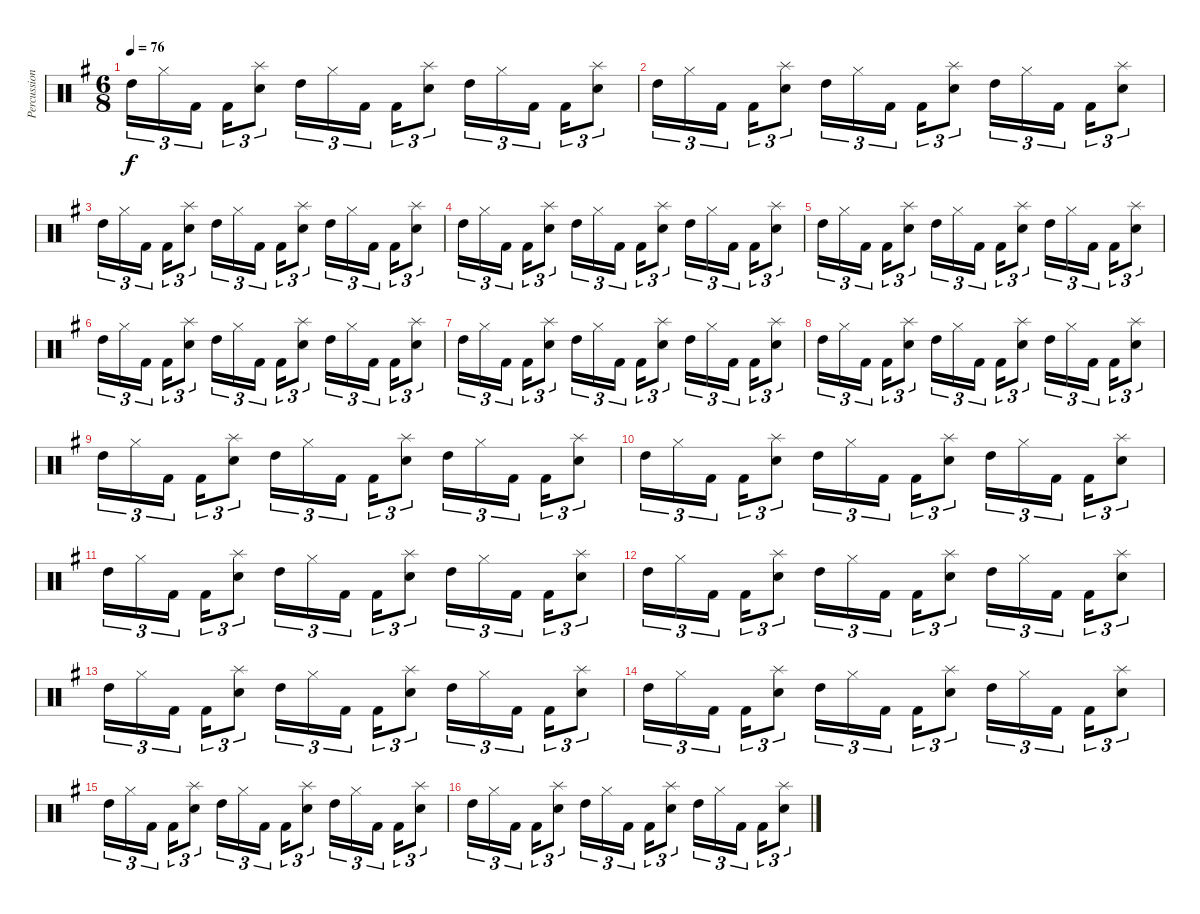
\track ("Percussions 3" "Percussion") {instrument percussion}
\staff {score}
\articulation defaults
\ts (6 8)
\tempo 76
\clef neutral
\ks g "High Tom (hit)".16{tu (3 2) dy f} "Hi-Hat (closed)".16{tu (3 2)} "Kick (hit) 2".16{tu (3 2)} "Kick (hit) 2".16{tu (3 2)}
("Splash (hit)" "Snare (hit) 2").8{tu (3 2)} "High Tom (hit)".16{tu (3 2)} "Hi-Hat (closed)".16{tu (3 2)} "Kick (hit) 2".16{tu (3 2)} "Kick (hit) 2".16{tu (3 2)} ("Splash (hit)" "Snare (hit) 2").8{tu (3 2)} "High Tom (hit)".16{tu (3 2)} "Hi-Hat (closed)".16{tu (3 2)} "Kick (hit) 2".16{tu (3 2)} "Kick (hit) 2".16{tu (3 2)} ("Splash (hit)" "Snare (hit) 2").8{tu (3 2)} |
"High Tom (hit)".16{tu (3 2)} "Hi-Hat (closed)".16{tu (3 2)} "Kick (hit) 2".16{tu (3 2)} "Kick (hit) 2".16{tu (3 2)} ("Splash (hit)" "Snare (hit) 2").8{tu (3 2)} "High Tom (hit)".16{tu (3 2)} "Hi-Hat (closed)".16{tu (3 2)} "Kick (hit) 2".16{tu (3 2)} "Kick (hit) 2".16{tu (3 2)} ("Splash (hit)" "Snare (hit) 2").8{tu (3 2)} "High Tom (hit)".16{tu (3 2)} "Hi-Hat (closed)".16{tu (3 2)} "Kick (hit) 2".16{tu (3 2)} "Kick (hit) 2".16{tu (3 2)} ("Splash (hit)" "Snare (hit) 2").8{tu (3 2)} |
"High Tom (hit)".16{tu (3 2)} "Hi-Hat (closed)".16{tu (3 2)} "Kick (hit) 2".16{tu (3 2)} "Kick (hit) 2".16{tu (3 2)} ("Splash (hit)" "Snare (hit) 2").8{tu (3 2)} "High Tom (hit)".16{tu (3 2)} "Hi-Hat (closed)".16{tu (3 2)} "Kick (hit) 2".16{tu (3 2)} "Kick (hit) 2".16{tu (3 2)} ("Splash (hit)" "Snare (hit) 2").8{tu (3 2)} "High Tom (hit)".16{tu (3 2)} "Hi-Hat (closed)".16{tu (3 2)} "Kick (hit) 2".16{tu (3 2)} "Kick (hit) 2".16{tu (3 2)} ("Splash (hit)" "Snare (hit) 2").8{tu (3 2)} |
"High Tom (hit)".16{tu (3 2)} "Hi-Hat (closed)".16{tu (3 2)} "Kick (hit) 2".16{tu (3 2)} "Kick (hit) 2".16{tu (3 2)} ("Splash (hit)" "Snare (hit) 2").8{tu (3 2)} "High Tom (hit)".16{tu (3 2)} "Hi-Hat (closed)".16{tu (3 2)} "Kick (hit) 2".16{tu (3 2)} "Kick (hit) 2".16{tu (3 2)} ("Splash (hit)" "Snare (hit) 2").8{tu (3 2)} "High Tom (hit)".16{tu (3 2)} "Hi-Hat (closed)".16{tu (3 2)} "Kick (hit) 2".16{tu (3 2)} "Kick (hit) 2".16{tu (3 2)} ("Splash (hit)" "Snare (hit) 2").8{tu (3 2)} |
"High Tom (hit)".16{tu (3 2)} "Hi-Hat (closed)".16{tu (3 2)} "Kick (hit) 2".16{tu (3 2)} "Kick (hit) 2".16{tu (3 2)} ("Splash (hit)" "Snare (hit) 2").8{tu (3 2)} "High Tom (hit)".16{tu (3 2)} "Hi-Hat (closed)".16{tu (3 2)} "Kick (hit) 2".16{tu (3 2)} "Kick (hit) 2".16{tu (3 2)} ("Splash (hit)" "Snare (hit) 2").8{tu (3 2)} "High Tom (hit)".16{tu (3 2)} "Hi-Hat (closed)".16{tu (3 2)} "Kick (hit) 2".16{tu (3 2)} "Kick (hit) 2".16{tu (3 2)} ("Splash (hit)" "Snare (hit) 2").8{tu (3 2)} |
"High Tom (hit)".16{tu (3 2)} "Hi-Hat (closed)".16{tu (3 2)} "Kick (hit) 2".16{tu (3 2)} "Kick (hit) 2".16{tu (3 2)} ("Splash (hit)" "Snare (hit) 2").8{tu (3 2)} "High Tom (hit)".16{tu (3 2)} "Hi-Hat (closed)".16{tu (3 2)} "Kick (hit) 2".16{tu (3 2)} "Kick (hit) 2".16{tu (3 2)} ("Splash (hit)" "Snare (hit) 2").8{tu (3 2)} "High Tom (hit)".16{tu (3 2)} "Hi-Hat (closed)".16{tu (3 2)} "Kick (hit) 2".16{tu (3 2)} "Kick (hit) 2".16{tu (3 2)} ("Splash (hit)" "Snare (hit) 2").8{tu (3 2)} |
"High Tom (hit)".16{tu (3 2)} "Hi-Hat (closed)".16{tu (3 2)} "Kick (hit) 2".16{tu (3 2)} "Kick (hit) 2".16{tu (3 2)} ("Splash (hit)" "Snare (hit) 2").8{tu (3 2)} "High Tom (hit)".16{tu (3 2)} "Hi-Hat (closed)".16{tu (3 2)} "Kick (hit) 2".16{tu (3 2)} "Kick (hit) 2".16{tu (3 2)} ("Splash (hit)" "Snare (hit) 2").8{tu (3 2)} "High Tom (hit)".16{tu (3 2)} "Hi-Hat (closed)".16{tu (3 2)} "Kick (hit) 2".16{tu (3 2)} "Kick (hit) 2".16{tu (3 2)} ("Splash (hit)" "Snare (hit) 2").8{tu (3 2)} |
"High Tom (hit)".16{tu (3 2)} "Hi-Hat (closed)".16{tu (3 2)} "Kick (hit) 2".16{tu (3 2)} "Kick (hit) 2".16{tu (3 2)} ("Splash (hit)" "Snare (hit) 2").8{tu (3 2)} "High Tom (hit)".16{tu (3 2)} "Hi-Hat (closed)".16{tu (3 2)} "Kick (hit) 2".16{tu (3 2)} "Kick (hit) 2".16{tu (3 2)} ("Splash (hit)" "Snare (hit) 2").8{tu (3 2)} "High Tom (hit)".16{tu (3 2)} "Hi-Hat (closed)".16{tu (3 2)} "Kick (hit) 2".16{tu (3 2)} "Kick (hit) 2".16{tu (3 2)} ("Splash (hit)" "Snare (hit) 2").8{tu (3 2)} |
"High Tom (hit)".16{tu (3 2)} "Hi-Hat (closed)".16{tu (3 2)} "Kick (hit) 2".16{tu (3 2)} "Kick (hit) 2".16{tu (3 2)} ("Splash (hit)" "Snare (hit) 2").8{tu (3 2)} "High Tom (hit)".16{tu (3 2)} "Hi-Hat (closed)".16{tu (3 2)} "Kick (hit) 2".16{tu (3 2)} "Kick (hit) 2".16{tu (3 2)} ("Splash (hit)" "Snare (hit) 2").8{tu (3 2)} "High Tom (hit)".16{tu (3 2)} "Hi-Hat (closed)".16{tu (3 2)} "Kick (hit) 2".16{tu (3 2)} "Kick (hit) 2".16{tu (3 2)} ("Splash (hit)" "Snare (hit) 2").8{tu (3 2)} |
"High Tom (hit)".16{tu (3 2)} "Hi-Hat (closed)".16{tu (3 2)} "Kick (hit) 2".16{tu (3 2)} "Kick (hit) 2".16{tu (3 2)} ("Splash (hit)" "Snare (hit) 2").8{tu (3 2)} "High Tom (hit)".16{tu (3 2)} "Hi-Hat (closed)".16{tu (3 2)} "Kick (hit) 2".16{tu (3 2)} "Kick (hit) 2".16{tu (3 2)} ("Splash (hit)" "Snare (hit) 2").8{tu (3 2)} "High Tom (hit)".16{tu (3 2)} "Hi-Hat (closed)".16{tu (3 2)} "Kick (hit) 2".16{tu (3 2)} "Kick (hit) 2".16{tu (3 2)} ("Splash (hit)" "Snare (hit) 2").8{tu (3 2)} |
"High Tom (hit)".16{tu (3 2)} "Hi-Hat (closed)".16{tu (3 2)} "Kick (hit) 2".16{tu (3 2)} "Kick (hit) 2".16{tu (3 2)} ("Splash (hit)" "Snare (hit) 2").8{tu (3 2)} "High Tom (hit)".16{tu (3 2)} "Hi-Hat (closed)".16{tu (3 2)} "Kick (hit) 2".16{tu (3 2)} "Kick (hit) 2".16{tu (3 2)} ("Splash (hit)" "Snare (hit) 2").8{tu (3 2)} "High Tom (hit)".16{tu (3 2)} "Hi-Hat (closed)".16{tu (3 2)} "Kick (hit) 2".16{tu (3 2)} "Kick (hit) 2".16{tu (3 2)} ("Splash (hit)" "Snare (hit) 2").8{tu (3 2)} |
"High Tom (hit)".16{tu (3 2)} "Hi-Hat (closed)".16{tu (3 2)} "Kick (hit) 2".16{tu (3 2)} "Kick (hit) 2".16{tu (3 2)} ("Splash (hit)" "Snare (hit) 2").8{tu (3 2)} "High Tom (hit)".16{tu (3 2)} "Hi-Hat (closed)".16{tu (3 2)} "Kick (hit) 2".16{tu (3 2)} "Kick (hit) 2".16{tu (3 2)} ("Splash (hit)" "Snare (hit) 2").8{tu (3 2)} "High Tom (hit)".16{tu (3 2)} "Hi-Hat (closed)".16{tu (3 2)} "Kick (hit) 2".16{tu (3 2)} "Kick (hit) 2".16{tu (3 2)} ("Splash (hit)" "Snare (hit) 2").8{tu (3 2)} |
"High Tom (hit)".16{tu (3 2)} "Hi-Hat (closed)".16{tu (3 2)} "Kick (hit) 2".16{tu (3 2)} "Kick (hit) 2".16{tu (3 2)} ("Splash (hit)" "Snare (hit) 2").8{tu (3 2)} "High Tom (hit)".16{tu (3 2)} "Hi-Hat (closed)".16{tu (3 2)} "Kick (hit) 2".16{tu (3 2)} "Kick (hit) 2".16{tu (3 2)} ("Splash (hit)" "Snare (hit) 2").8{tu (3 2)} "High Tom (hit)".16{tu (3 2)} "Hi-Hat (closed)".16{tu (3 2)} "Kick (hit) 2".16{tu (3 2)} "Kick (hit) 2".16{tu (3 2)} ("Splash (hit)" "Snare (hit) 2").8{tu (3 2)} |
"High Tom (hit)".16{tu (3 2)} "Hi-Hat (closed)".16{tu (3 2)} "Kick (hit) 2".16{tu (3 2)} "Kick (hit) 2".16{tu (3 2)} ("Splash (hit)" "Snare (hit) 2").8{tu (3 2)} "High Tom (hit)".16{tu (3 2)} "Hi-Hat (closed)".16{tu (3 2)} "Kick (hit) 2".16{tu (3 2)} "Kick (hit) 2".16{tu (3 2)} ("Splash (hit)" "Snare (hit) 2").8{tu (3 2)} "High Tom (hit)".16{tu (3 2)} "Hi-Hat (closed)".16{tu (3 2)} "Kick (hit) 2".16{tu (3 2)} "Kick (hit) 2".16{tu (3 2)} ("Splash (hit)" "Snare (hit) 2").8{tu (3 2)} |
"High Tom (hit)".16{tu (3 2)} "Hi-Hat (closed)".16{tu (3 2)} "Kick (hit) 2".16{tu (3 2)} "Kick (hit) 2".16{tu (3 2)} ("Splash (hit)" "Snare (hit) 2").8{tu (3 2)} "High Tom (hit)".16{tu (3 2)} "Hi-Hat (closed)".16{tu (3 2)} "Kick (hit) 2".16{tu (3 2)} "Kick (hit) 2".16{tu (3 2)} ("Splash (hit)" "Snare (hit) 2").8{tu (3 2)} "High Tom (hit)".16{tu (3 2)} "Hi-Hat (closed)".16{tu (3 2)} "Kick (hit) 2".16{tu (3 2)} "Kick (hit) 2".16{tu (3 2)} ("Splash (hit)" "Snare (hit) 2").8{tu (3 2)} |
"High Tom (hit)".16{tu (3 2)} "Hi-Hat (closed)".16{tu (3 2)} "Kick (hit) 2".16{tu (3 2)} "Kick (hit) 2".16{tu (3 2)} ("Splash (hit)" "Snare (hit) 2").8{tu (3 2)} "High Tom (hit)".16{tu (3 2)} "Hi-Hat (closed)".16{tu (3 2)} "Kick (hit) 2".16{tu (3 2)} "Kick (hit) 2".16{tu (3 2)} ("Splash (hit)" "Snare (hit) 2").8{tu (3 2)} "High Tom (hit)".16{tu (3 2)} "Hi-Hat (closed)".16{tu (3 2)} "Kick (hit) 2".16{tu (3 2)} "Kick (hit) 2".16{tu (3 2)} ("Splash (hit)" "Snare (hit) 2").8{tu (3 2)}
